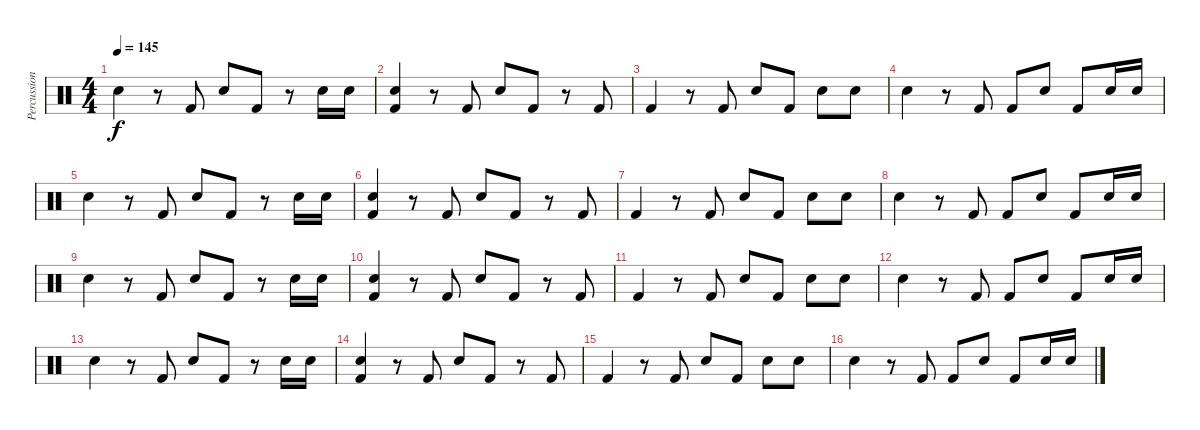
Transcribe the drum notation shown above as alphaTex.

\track ("Percussion" "Percussion") {instrument percussion}
\staff {score}
\articulation defaults
\ts (4 4)
\tempo 145
\clef neutral
\ks c "Snare (hit) 2".4{dy f}
r.8 "Kick (hit) 2".8 "Snare (hit) 2".8 "Kick (hit) 2".8 r.8 "Snare (hit) 2".16 "Snare (hit) 2".16 |
("Kick (hit) 2" "Snare (hit) 2").4 r.8 "Kick (hit) 2".8 "Snare (hit) 2".8 "Kick (hit) 2".8 r.8 "Kick (hit) 2".8 |
"Kick (hit) 2".4 r.8 "Kick (hit) 2".8 "Snare (hit) 2".8 "Kick (hit) 2".8 "Snare (hit) 2".8 "Snare (hit) 2".8 |
"Snare (hit) 2".4 r.8 "Kick (hit) 2".8 "Kick (hit) 2".8 "Snare (hit) 2".8 "Kick (hit) 2".8 "Snare (hit) 2".16 "Snare (hit) 2".16 |
"Snare (hit) 2".4 r.8 "Kick (hit) 2".8 "Snare (hit) 2".8 "Kick (hit) 2".8 r.8 "Snare (hit) 2".16 "Snare (hit) 2".16 |
("Kick (hit) 2" "Snare (hit) 2").4 r.8 "Kick (hit) 2".8 "Snare (hit) 2".8 "Kick (hit) 2".8 r.8 "Kick (hit) 2".8 |
"Kick (hit) 2".4 r.8 "Kick (hit) 2".8 "Snare (hit) 2".8 "Kick (hit) 2".8 "Snare (hit) 2".8 "Snare (hit) 2".8 |
"Snare (hit) 2".4 r.8 "Kick (hit) 2".8 "Kick (hit) 2".8 "Snare (hit) 2".8 "Kick (hit) 2".8 "Snare (hit) 2".16 "Snare (hit) 2".16 |
"Snare (hit) 2".4 r.8 "Kick (hit) 2".8 "Snare (hit) 2".8 "Kick (hit) 2".8 r.8 "Snare (hit) 2".16 "Snare (hit) 2".16 |
("Kick (hit) 2" "Snare (hit) 2").4 r.8 "Kick (hit) 2".8 "Snare (hit) 2".8 "Kick (hit) 2".8 r.8 "Kick (hit) 2".8 |
"Kick (hit) 2".4 r.8 "Kick (hit) 2".8 "Snare (hit) 2".8 "Kick (hit) 2".8 "Snare (hit) 2".8 "Snare (hit) 2".8 |
"Snare (hit) 2".4 r.8 "Kick (hit) 2".8 "Kick (hit) 2".8 "Snare (hit) 2".8 "Kick (hit) 2".8 "Snare (hit) 2".16 "Snare (hit) 2".16 |
"Snare (hit) 2".4 r.8 "Kick (hit) 2".8 "Snare (hit) 2".8 "Kick (hit) 2".8 r.8 "Snare (hit) 2".16 "Snare (hit) 2".16 |
("Kick (hit) 2" "Snare (hit) 2").4 r.8 "Kick (hit) 2".8 "Snare (hit) 2".8 "Kick (hit) 2".8 r.8 "Kick (hit) 2".8 |
"Kick (hit) 2".4 r.8 "Kick (hit) 2".8 "Snare (hit) 2".8 "Kick (hit) 2".8 "Snare (hit) 2".8 "Snare (hit) 2".8 |
"Snare (hit) 2".4 r.8 "Kick (hit) 2".8 "Kick (hit) 2".8 "Snare (hit) 2".8 "Kick (hit) 2".8 "Snare (hit) 2".16 "Snare (hit) 2".16
